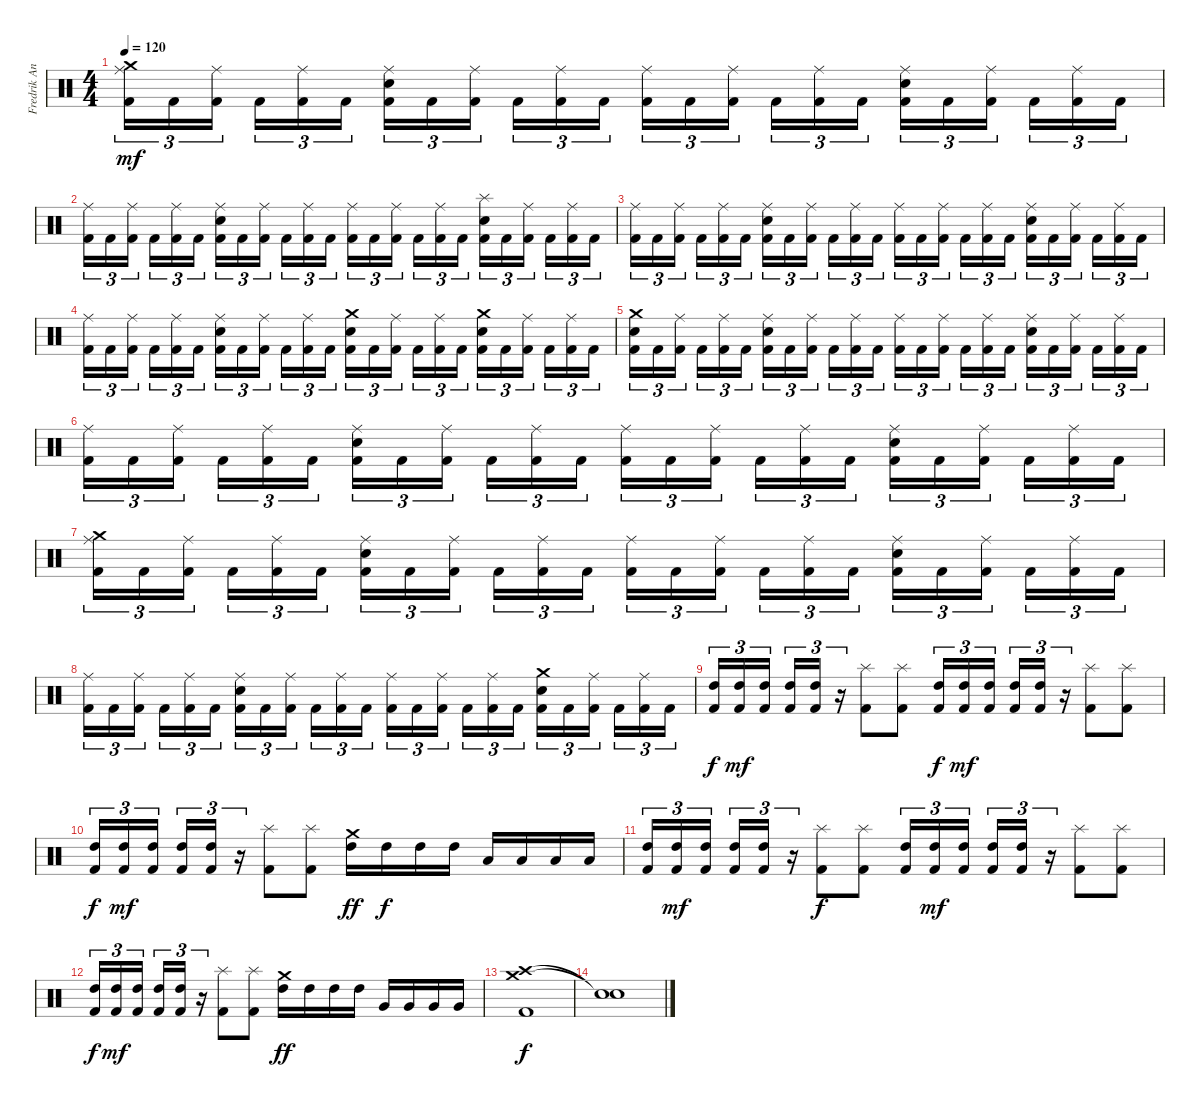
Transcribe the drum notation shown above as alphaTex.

\track ("Fredrik Andersson" "Fredrik An") {instrument percussion}
\staff {score}
\articulation defaults
\ts (4 4)
\tempo 120
\clef neutral
\ks c
("Crash medium (hit)" "Ride (middle)" "Kick (hit) 2").16{tu (3 2) dy mf} "Kick (hit) 2".16{tu (3 2)} ("Ride (middle)" "Kick (hit) 2").16{tu (3 2) beam splitsecondary} "Kick (hit) 2".16{tu (3 2)} ("Ride (middle)" "Kick (hit) 2").16{tu (3 2)} "Kick (hit) 2".16{tu (3 2)} ("Snare (hit) 2" "Ride (middle)" "Kick (hit) 2").16{tu (3 2)} "Kick (hit) 2".16{tu (3 2)} ("Ride (middle)" "Kick (hit) 2").16{tu (3 2) beam splitsecondary} "Kick (hit) 2".16{tu (3 2)} ("Ride (middle)" "Kick (hit) 2").16{tu (3 2)} "Kick (hit) 2".16{tu (3 2)} ("Ride (middle)" "Kick (hit) 2").16{tu (3 2)} "Kick (hit) 2".16{tu (3 2)} ("Ride (middle)" "Kick (hit) 2").16{tu (3 2) beam splitsecondary} "Kick (hit) 2".16{tu (3 2)} ("Ride (middle)" "Kick (hit) 2").16{tu (3 2)} "Kick (hit) 2".16{tu (3 2)} ("Snare (hit) 2" "Ride (middle)" "Kick (hit) 2").16{tu (3 2)} "Kick (hit) 2".16{tu (3 2)} ("Ride (middle)" "Kick (hit) 2").16{tu (3 2) beam splitsecondary} "Kick (hit) 2".16{tu (3 2)} ("Ride (middle)" "Kick (hit) 2").16{tu (3 2)} "Kick (hit) 2".16{tu (3 2)} |
("Ride (middle)" "Kick (hit) 2").16{tu (3 2)} "Kick (hit) 2".16{tu (3 2)} ("Ride (middle)" "Kick (hit) 2").16{tu (3 2) beam splitsecondary} "Kick (hit) 2".16{tu (3 2)} ("Ride (middle)" "Kick (hit) 2").16{tu (3 2)} "Kick (hit) 2".16{tu (3 2)} ("Snare (hit) 2" "Ride (middle)" "Kick (hit) 2").16{tu (3 2)} "Kick (hit) 2".16{tu (3 2)} ("Ride (middle)" "Kick (hit) 2").16{tu (3 2) beam splitsecondary} "Kick (hit) 2".16{tu (3 2)} ("Ride (middle)" "Kick (hit) 2").16{tu (3 2)} "Kick (hit) 2".16{tu (3 2)} ("Ride (middle)" "Kick (hit) 2").16{tu (3 2)} "Kick (hit) 2".16{tu (3 2)} ("Ride (middle)" "Kick (hit) 2").16{tu (3 2) beam splitsecondary} "Kick (hit) 2".16{tu (3 2)} ("Ride (middle)" "Kick (hit) 2").16{tu (3 2)} "Kick (hit) 2".16{tu (3 2)} ("Snare (hit) 2" "Splash (hit)" "Kick (hit) 2").16{tu (3 2)} "Kick (hit) 2".16{tu (3 2)} ("Ride (middle)" "Kick (hit) 2").16{tu (3 2) beam splitsecondary} "Kick (hit) 2".16{tu (3 2)} ("Ride (middle)" "Kick (hit) 2").16{tu (3 2)} "Kick (hit) 2".16{tu (3 2)} |
("Ride (middle)" "Kick (hit) 2").16{tu (3 2)} "Kick (hit) 2".16{tu (3 2)} ("Ride (middle)" "Kick (hit) 2").16{tu (3 2) beam splitsecondary} "Kick (hit) 2".16{tu (3 2)} ("Ride (middle)" "Kick (hit) 2").16{tu (3 2)} "Kick (hit) 2".16{tu (3 2)} ("Snare (hit) 2" "Ride (middle)" "Kick (hit) 2").16{tu (3 2)} "Kick (hit) 2".16{tu (3 2)} ("Ride (middle)" "Kick (hit) 2").16{tu (3 2) beam splitsecondary} "Kick (hit) 2".16{tu (3 2)} ("Ride (middle)" "Kick (hit) 2").16{tu (3 2)} "Kick (hit) 2".16{tu (3 2)} ("Ride (middle)" "Kick (hit) 2").16{tu (3 2)} "Kick (hit) 2".16{tu (3 2)} ("Ride (middle)" "Kick (hit) 2").16{tu (3 2) beam splitsecondary} "Kick (hit) 2".16{tu (3 2)} ("Ride (middle)" "Kick (hit) 2").16{tu (3 2)} "Kick (hit) 2".16{tu (3 2)} ("Snare (hit) 2" "Ride (middle)" "Kick (hit) 2").16{tu (3 2)} "Kick (hit) 2".16{tu (3 2)} ("Ride (middle)" "Kick (hit) 2").16{tu (3 2) beam splitsecondary} "Kick (hit) 2".16{tu (3 2)} ("Ride (middle)" "Kick (hit) 2").16{tu (3 2)} "Kick (hit) 2".16{tu (3 2)} |
("Ride (middle)" "Kick (hit) 2").16{tu (3 2)} "Kick (hit) 2".16{tu (3 2)} ("Ride (middle)" "Kick (hit) 2").16{tu (3 2) beam splitsecondary} "Kick (hit) 2".16{tu (3 2)} ("Ride (middle)" "Kick (hit) 2").16{tu (3 2)} "Kick (hit) 2".16{tu (3 2)} ("Snare (hit) 2" "Ride (middle)" "Kick (hit) 2").16{tu (3 2)} "Kick (hit) 2".16{tu (3 2)} ("Ride (middle)" "Kick (hit) 2").16{tu (3 2) beam splitsecondary} "Kick (hit) 2".16{tu (3 2)} ("Ride (middle)" "Kick (hit) 2").16{tu (3 2)} "Kick (hit) 2".16{tu (3 2)} ("Snare (hit) 2" "Crash medium (hit)" "Kick (hit) 2").16{tu (3 2)} "Kick (hit) 2".16{tu (3 2)} ("Ride (middle)" "Kick (hit) 2").16{tu (3 2) beam splitsecondary} "Kick (hit) 2".16{tu (3 2)} ("Ride (middle)" "Kick (hit) 2").16{tu (3 2)} "Kick (hit) 2".16{tu (3 2)} ("Snare (hit) 2" "Crash medium (hit)" "Kick (hit) 2").16{tu (3 2)} "Kick (hit) 2".16{tu (3 2)} ("Ride (middle)" "Kick (hit) 2").16{tu (3 2) beam splitsecondary} "Kick (hit) 2".16{tu (3 2)} ("Ride (middle)" "Kick (hit) 2").16{tu (3 2)} "Kick (hit) 2".16{tu (3 2)} |
("Snare (hit) 2" "Crash medium (hit)" "Kick (hit) 2").16{tu (3 2)} "Kick (hit) 2".16{tu (3 2)} ("Ride (middle)" "Kick (hit) 2").16{tu (3 2) beam splitsecondary} "Kick (hit) 2".16{tu (3 2)} ("Ride (middle)" "Kick (hit) 2").16{tu (3 2)} "Kick (hit) 2".16{tu (3 2)} ("Snare (hit) 2" "Ride (middle)" "Kick (hit) 2").16{tu (3 2)} "Kick (hit) 2".16{tu (3 2)} ("Ride (middle)" "Kick (hit) 2").16{tu (3 2) beam splitsecondary} "Kick (hit) 2".16{tu (3 2)} ("Ride (middle)" "Kick (hit) 2").16{tu (3 2)} "Kick (hit) 2".16{tu (3 2)} ("Ride (middle)" "Kick (hit) 2").16{tu (3 2)} "Kick (hit) 2".16{tu (3 2)} ("Ride (middle)" "Kick (hit) 2").16{tu (3 2) beam splitsecondary} "Kick (hit) 2".16{tu (3 2)} ("Ride (middle)" "Kick (hit) 2").16{tu (3 2)} "Kick (hit) 2".16{tu (3 2)} ("Snare (hit) 2" "Ride (middle)" "Kick (hit) 2").16{tu (3 2)} "Kick (hit) 2".16{tu (3 2)} ("Ride (middle)" "Kick (hit) 2").16{tu (3 2) beam splitsecondary} "Kick (hit) 2".16{tu (3 2)} ("Ride (middle)" "Kick (hit) 2").16{tu (3 2)} "Kick (hit) 2".16{tu (3 2)} |
("Ride (middle)" "Kick (hit) 2").16{tu (3 2)} "Kick (hit) 2".16{tu (3 2)} ("Ride (middle)" "Kick (hit) 2").16{tu (3 2) beam splitsecondary} "Kick (hit) 2".16{tu (3 2)} ("Ride (middle)" "Kick (hit) 2").16{tu (3 2)} "Kick (hit) 2".16{tu (3 2)} ("Snare (hit) 2" "Ride (middle)" "Kick (hit) 2").16{tu (3 2)} "Kick (hit) 2".16{tu (3 2)} ("Ride (middle)" "Kick (hit) 2").16{tu (3 2) beam splitsecondary} "Kick (hit) 2".16{tu (3 2)} ("Ride (middle)" "Kick (hit) 2").16{tu (3 2)} "Kick (hit) 2".16{tu (3 2)} ("Ride (middle)" "Kick (hit) 2").16{tu (3 2)} "Kick (hit) 2".16{tu (3 2)} ("Ride (middle)" "Kick (hit) 2").16{tu (3 2) beam splitsecondary} "Kick (hit) 2".16{tu (3 2)} ("Ride (middle)" "Kick (hit) 2").16{tu (3 2)} "Kick (hit) 2".16{tu (3 2)} ("Snare (hit) 2" "Ride (middle)" "Kick (hit) 2").16{tu (3 2)} "Kick (hit) 2".16{tu (3 2)} ("Ride (middle)" "Kick (hit) 2").16{tu (3 2) beam splitsecondary} "Kick (hit) 2".16{tu (3 2)} ("Ride (middle)" "Kick (hit) 2").16{tu (3 2)} "Kick (hit) 2".16{tu (3 2)} |
("Crash medium (hit)" "Ride (middle)" "Kick (hit) 2").16{tu (3 2)} "Kick (hit) 2".16{tu (3 2)} ("Ride (middle)" "Kick (hit) 2").16{tu (3 2) beam splitsecondary} "Kick (hit) 2".16{tu (3 2)} ("Ride (middle)" "Kick (hit) 2").16{tu (3 2)} "Kick (hit) 2".16{tu (3 2)} ("Snare (hit) 2" "Ride (middle)" "Kick (hit) 2").16{tu (3 2)} "Kick (hit) 2".16{tu (3 2)} ("Ride (middle)" "Kick (hit) 2").16{tu (3 2) beam splitsecondary} "Kick (hit) 2".16{tu (3 2)} ("Ride (middle)" "Kick (hit) 2").16{tu (3 2)} "Kick (hit) 2".16{tu (3 2)} ("Ride (middle)" "Kick (hit) 2").16{tu (3 2)} "Kick (hit) 2".16{tu (3 2)} ("Ride (middle)" "Kick (hit) 2").16{tu (3 2) beam splitsecondary} "Kick (hit) 2".16{tu (3 2)} ("Ride (middle)" "Kick (hit) 2").16{tu (3 2)} "Kick (hit) 2".16{tu (3 2)} ("Snare (hit) 2" "Ride (middle)" "Kick (hit) 2").16{tu (3 2)} "Kick (hit) 2".16{tu (3 2)} ("Ride (middle)" "Kick (hit) 2").16{tu (3 2) beam splitsecondary} "Kick (hit) 2".16{tu (3 2)} ("Ride (middle)" "Kick (hit) 2").16{tu (3 2)} "Kick (hit) 2".16{tu (3 2)} |
("Ride (middle)" "Kick (hit) 2").16{tu (3 2)} "Kick (hit) 2".16{tu (3 2)} ("Ride (middle)" "Kick (hit) 2").16{tu (3 2) beam splitsecondary} "Kick (hit) 2".16{tu (3 2)} ("Ride (middle)" "Kick (hit) 2").16{tu (3 2)} "Kick (hit) 2".16{tu (3 2)} ("Snare (hit) 2" "Ride (middle)" "Kick (hit) 2").16{tu (3 2)} "Kick (hit) 2".16{tu (3 2)} ("Ride (middle)" "Kick (hit) 2").16{tu (3 2) beam splitsecondary} "Kick (hit) 2".16{tu (3 2)} ("Ride (middle)" "Kick (hit) 2").16{tu (3 2)} "Kick (hit) 2".16{tu (3 2)} ("Ride (middle)" "Kick (hit) 2").16{tu (3 2)} "Kick (hit) 2".16{tu (3 2)} ("Ride (middle)" "Kick (hit) 2").16{tu (3 2) beam splitsecondary} "Kick (hit) 2".16{tu (3 2)} ("Ride (middle)" "Kick (hit) 2").16{tu (3 2)} "Kick (hit) 2".16{tu (3 2)} ("Snare (hit) 2" "Crash medium (hit)" "Kick (hit) 2").16{tu (3 2)} "Kick (hit) 2".16{tu (3 2)} ("Ride (middle)" "Kick (hit) 2").16{tu (3 2) beam splitsecondary} "Kick (hit) 2".16{tu (3 2)} ("Ride (middle)" "Kick (hit) 2").16{tu (3 2)} "Kick (hit) 2".16{tu (3 2)} |
("High Tom (hit)" "Kick (hit) 2").16{tu (3 2) dy f} ("High Tom (hit)" "Kick (hit) 2").16{tu (3 2) dy mf} ("High Tom (hit)" "Kick (hit) 2").16{tu (3 2) beam splitsecondary} ("High Tom (hit)" "Kick (hit) 2").16{tu (3 2)} ("High Tom (hit)" "Kick (hit) 2").16{tu (3 2)} r.16{tu (3 2)} ("Splash (hit)" "Kick (hit) 2").8 ("Splash (hit)" "Kick (hit) 2").8 ("High Tom (hit)" "Kick (hit) 2").16{tu (3 2) dy f} ("High Tom (hit)" "Kick (hit) 2").16{tu (3 2) dy mf} ("High Tom (hit)" "Kick (hit) 2").16{tu (3 2) beam splitsecondary} ("High Tom (hit)" "Kick (hit) 2").16{tu (3 2)} ("High Tom (hit)" "Kick (hit) 2").16{tu (3 2)} r.16{tu (3 2)} ("Splash (hit)" "Kick (hit) 2").8 ("Splash (hit)" "Kick (hit) 2").8 |
("High Tom (hit)" "Kick (hit) 2").16{tu (3 2) dy f} ("High Tom (hit)" "Kick (hit) 2").16{tu (3 2) dy mf} ("High Tom (hit)" "Kick (hit) 2").16{tu (3 2) beam splitsecondary} ("High Tom (hit)" "Kick (hit) 2").16{tu (3 2)} ("High Tom (hit)" "Kick (hit) 2").16{tu (3 2)} r.16{tu (3 2)} ("Splash (hit)" "Kick (hit) 2").8 ("Splash (hit)" "Kick (hit) 2").8 ("Crash medium (hit)" "High Tom (hit)").16{dy ff} "High Tom (hit)".16{dy f} "High Tom (hit)".16 "High Tom (hit)".16 "Low Tom (hit)".16 "Low Tom (hit)".16 "Low Tom (hit)".16 "Low Tom (hit)".16 |
("High Tom (hit)" "Kick (hit) 2").16{tu (3 2)} ("High Tom (hit)" "Kick (hit) 2").16{tu (3 2) dy mf} ("High Tom (hit)" "Kick (hit) 2").16{tu (3 2) beam splitsecondary} ("High Tom (hit)" "Kick (hit) 2").16{tu (3 2)} ("High Tom (hit)" "Kick (hit) 2").16{tu (3 2)} r.16{tu (3 2)} ("Splash (hit)" "Kick (hit) 2").8{dy f} ("Splash (hit)" "Kick (hit) 2").8 ("High Tom (hit)" "Kick (hit) 2").16{tu (3 2)} ("High Tom (hit)" "Kick (hit) 2").16{tu (3 2) dy mf} ("High Tom (hit)" "Kick (hit) 2").16{tu (3 2) beam splitsecondary} ("High Tom (hit)" "Kick (hit) 2").16{tu (3 2)} ("High Tom (hit)" "Kick (hit) 2").16{tu (3 2)} r.16{tu (3 2)} ("Splash (hit)" "Kick (hit) 2").8 ("Splash (hit)" "Kick (hit) 2").8 |
("High Tom (hit)" "Kick (hit) 2").16{tu (3 2) dy f} ("High Tom (hit)" "Kick (hit) 2").16{tu (3 2) dy mf} ("High Tom (hit)" "Kick (hit) 2").16{tu (3 2) beam splitsecondary} ("High Tom (hit)" "Kick (hit) 2").16{tu (3 2)} ("High Tom (hit)" "Kick (hit) 2").16{tu (3 2)} r.16{tu (3 2)} ("Splash (hit)" "Kick (hit) 2").8 ("Splash (hit)" "Kick (hit) 2").8 ("Crash medium (hit)" "High Tom (hit)").16{dy ff} "High Tom (hit)".16 "High Tom (hit)".16 "High Tom (hit)".16 "Very Low Tom (hit)".16 "Very Low Tom (hit)".16 "Very Low Tom (hit)".16 "Very Low Tom (hit)".16 |
("Crash medium (hit)" "Crash high (hit)" "Kick (hit) 2").1{dy f} |
("Snare (hit)"{t} "Snare (hit)"{t}).1
